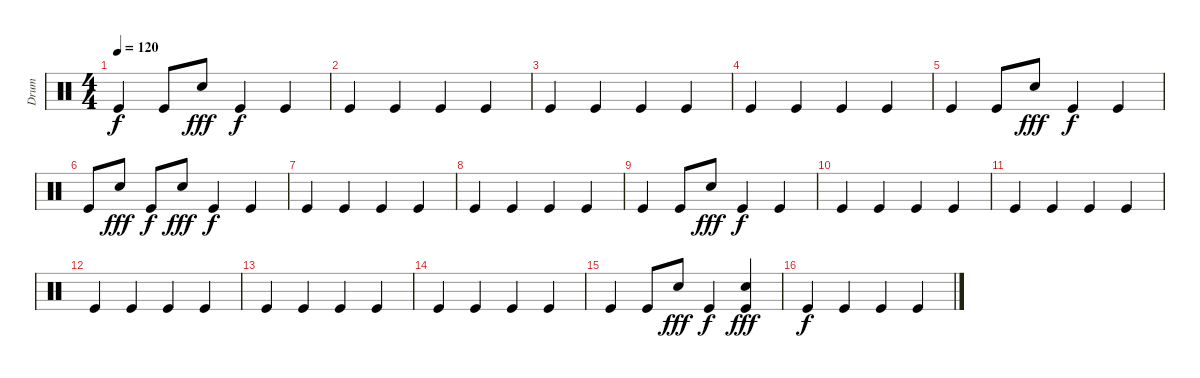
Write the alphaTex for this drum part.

\track ("Drum" "Drum") {instrument percussion}
\staff {score}
\articulation defaults
\ts (4 4)
\tempo 120
\clef neutral
\ks c "Kick (hit)".4{dy f} "Kick (hit)".8 "Electric Snare (hit)".8{dy fff} "Kick (hit)".4{dy f} "Kick (hit)".4
|
"Kick (hit)".4 "Kick (hit)".4 "Kick (hit)".4 "Kick (hit)".4 |
"Kick (hit)".4 "Kick (hit)".4 "Kick (hit)".4 "Kick (hit)".4 |
"Kick (hit)".4 "Kick (hit)".4 "Kick (hit)".4 "Kick (hit)".4 |
"Kick (hit)".4 "Kick (hit)".8 "Electric Snare (hit)".8{dy fff} "Kick (hit)".4{dy f} "Kick (hit)".4 |
"Kick (hit)".8 "Electric Snare (hit)".8{dy fff} "Kick (hit)".8{dy f} "Electric Snare (hit)".8{dy fff} "Kick (hit)".4{dy f} "Kick (hit)".4 |
"Kick (hit)".4 "Kick (hit)".4 "Kick (hit)".4 "Kick (hit)".4 |
"Kick (hit)".4 "Kick (hit)".4 "Kick (hit)".4 "Kick (hit)".4 |
"Kick (hit)".4 "Kick (hit)".8 "Electric Snare (hit)".8{dy fff} "Kick (hit)".4{dy f} "Kick (hit)".4 |
"Kick (hit)".4 "Kick (hit)".4 "Kick (hit)".4 "Kick (hit)".4 |
"Kick (hit)".4 "Kick (hit)".4 "Kick (hit)".4 "Kick (hit)".4 |
"Kick (hit)".4 "Kick (hit)".4 "Kick (hit)".4 "Kick (hit)".4 |
"Kick (hit)".4 "Kick (hit)".4 "Kick (hit)".4 "Kick (hit)".4 |
"Kick (hit)".4 "Kick (hit)".4 "Kick (hit)".4 "Kick (hit)".4 |
"Kick (hit)".4 "Kick (hit)".8 "Electric Snare (hit)".8{dy fff} "Kick (hit)".4{dy f} ("Kick (hit)" "Electric Snare (hit)").4{dy fff} |
"Kick (hit)".4{dy f} "Kick (hit)".4 "Kick (hit)".4 "Kick (hit)".4
